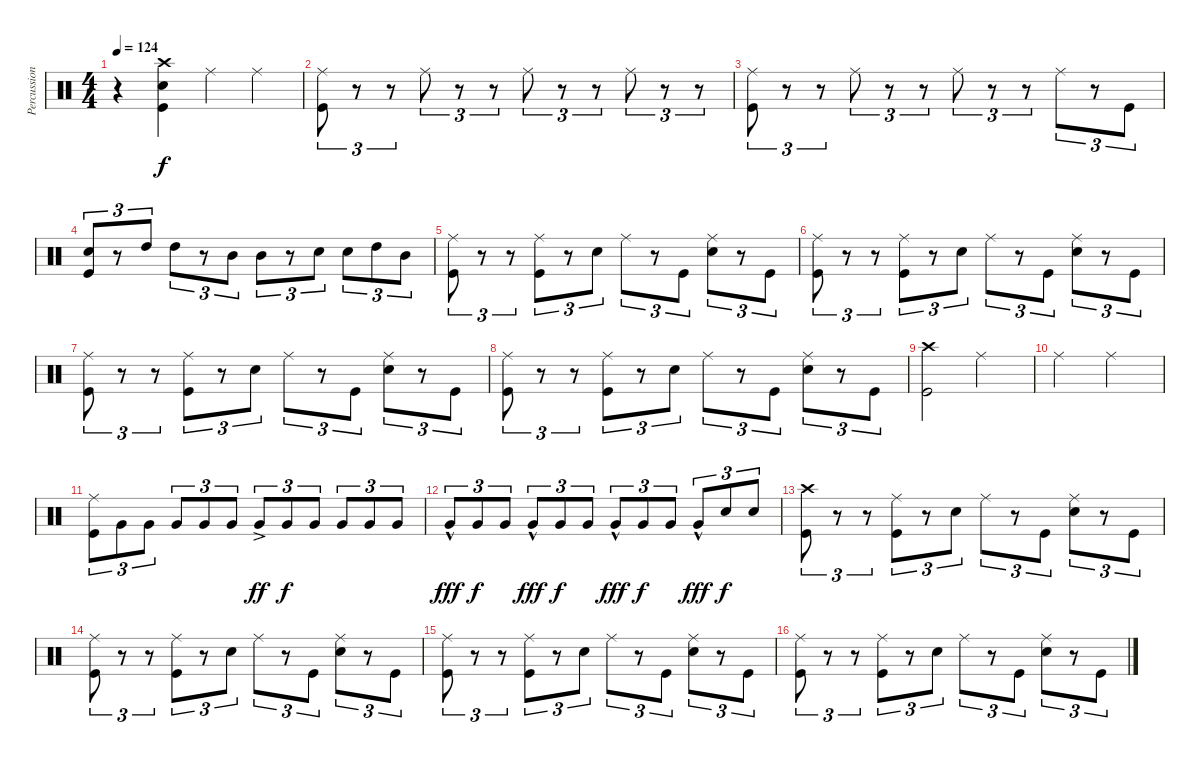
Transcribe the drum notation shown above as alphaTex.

\track ("Percussion" "Percussion") {instrument percussion}
\staff {score}
\articulation defaults
\ts (4 4)
\tempo 124
\clef neutral
\ks c
r.4{dy f} ("Crash high (hit)" "Snare (hit) 2" "Kick (hit)").4 "Ride (middle)".4 "Ride (middle)".4 |
("Ride (middle)" "Kick (hit)").8{tu (3 2)} r.8{tu (3 2)} r.8{tu (3 2)} "Ride (middle)".8{tu (3 2)} r.8{tu (3 2)} r.8{tu (3 2)} "Ride (middle)".8{tu (3 2)} r.8{tu (3 2)} r.8{tu (3 2)} "Ride (middle)".8{tu (3 2)} r.8{tu (3 2)} r.8{tu (3 2)} |
("Ride (middle)" "Kick (hit)").8{tu (3 2)} r.8{tu (3 2)} r.8{tu (3 2)} "Ride (middle)".8{tu (3 2)} r.8{tu (3 2)} r.8{tu (3 2)} "Ride (middle)".8{tu (3 2)} r.8{tu (3 2)} r.8{tu (3 2)} "Ride (middle)".8{tu (3 2)} r.8{tu (3 2)} "Kick (hit)".8{tu (3 2)} |
("Snare (hit) 2" "Kick (hit)").8{tu (3 2)} r.8{tu (3 2)} "High Tom (hit)".8{tu (3 2)} "High Tom (hit)".8{tu (3 2)} r.8{tu (3 2)} "Mid Tom (hit)".8{tu (3 2)} "Mid Tom (hit)".8{tu (3 2)} r.8{tu (3 2)} "Snare (hit) 2".8{tu (3 2)} "Snare (hit) 2".8{tu (3 2)} "High Tom (hit)".8{tu (3 2)} "Mid Tom (hit)".8{tu (3 2)} |
("Ride (middle)" "Kick (hit)").8{tu (3 2)} r.8{tu (3 2)} r.8{tu (3 2)} ("Ride (middle)" "Kick (hit)").8{tu (3 2)} r.8{tu (3 2)} "Snare (hit) 2".8{tu (3 2)} "Ride (middle)".8{tu (3 2)} r.8{tu (3 2)} "Kick (hit)".8{tu (3 2)} ("Ride (middle)" "Snare (hit) 2").8{tu (3 2)} r.8{tu (3 2)} "Kick (hit)".8{tu (3 2)} |
("Ride (middle)" "Kick (hit)").8{tu (3 2)} r.8{tu (3 2)} r.8{tu (3 2)} ("Ride (middle)" "Kick (hit)").8{tu (3 2)} r.8{tu (3 2)} "Snare (hit) 2".8{tu (3 2)} "Ride (middle)".8{tu (3 2)} r.8{tu (3 2)} "Kick (hit)".8{tu (3 2)} ("Ride (middle)" "Snare (hit) 2").8{tu (3 2)} r.8{tu (3 2)} "Kick (hit)".8{tu (3 2)} |
("Ride (middle)" "Kick (hit)").8{tu (3 2)} r.8{tu (3 2)} r.8{tu (3 2)} ("Ride (middle)" "Kick (hit)").8{tu (3 2)} r.8{tu (3 2)} "Snare (hit) 2".8{tu (3 2)} "Ride (middle)".8{tu (3 2)} r.8{tu (3 2)} "Kick (hit)".8{tu (3 2)} ("Ride (middle)" "Snare (hit) 2").8{tu (3 2)} r.8{tu (3 2)} "Kick (hit)".8{tu (3 2)} |
("Ride (middle)" "Kick (hit)").8{tu (3 2)} r.8{tu (3 2)} r.8{tu (3 2)} ("Ride (middle)" "Kick (hit)").8{tu (3 2)} r.8{tu (3 2)} "Snare (hit) 2".8{tu (3 2)} "Ride (middle)".8{tu (3 2)} r.8{tu (3 2)} "Kick (hit)".8{tu (3 2)} ("Ride (middle)" "Snare (hit) 2").8{tu (3 2)} r.8{tu (3 2)} "Kick (hit)".8{tu (3 2)} |
("Crash high (hit)" "Kick (hit)").2 "Ride (middle)".2 |
"Ride (middle)".2 "Ride (middle)".2 |
("Ride (middle)" "Kick (hit)").8{tu (3 2)} "Very Low Tom (hit)".8{tu (3 2)} "Very Low Tom (hit)".8{tu (3 2)} "Very Low Tom (hit)".8{tu (3 2)} "Very Low Tom (hit)".8{tu (3 2)} "Very Low Tom (hit)".8{tu (3 2)} "Very Low Tom (hit)"{ac}.8{tu (3 2) dy ff} "Very Low Tom (hit)".8{tu (3 2) dy f} "Very Low Tom (hit)".8{tu (3 2)} "Very Low Tom (hit)".8{tu (3 2)} "Very Low Tom (hit)".8{tu (3 2)} "Very Low Tom (hit)".8{tu (3 2)} |
"Very Low Tom (hit)"{hac}.8{tu (3 2) dy fff} "Very Low Tom (hit)".8{tu (3 2) dy f} "Very Low Tom (hit)".8{tu (3 2)} "Very Low Tom (hit)"{hac}.8{tu (3 2) dy fff} "Very Low Tom (hit)".8{tu (3 2) dy f} "Very Low Tom (hit)".8{tu (3 2)} "Very Low Tom (hit)"{hac}.8{tu (3 2) dy fff} "Very Low Tom (hit)".8{tu (3 2) dy f} "Very Low Tom (hit)".8{tu (3 2)} "Very Low Tom (hit)"{hac}.8{tu (3 2) dy fff} "Snare (hit) 2".8{tu (3 2) dy f} "Snare (hit) 2".8{tu (3 2)} |
("Crash high (hit)" "Kick (hit)").8{tu (3 2)} r.8{tu (3 2)} r.8{tu (3 2)} ("Ride (middle)" "Kick (hit)").8{tu (3 2)} r.8{tu (3 2)} "Snare (hit) 2".8{tu (3 2)} "Ride (middle)".8{tu (3 2)} r.8{tu (3 2)} "Kick (hit)".8{tu (3 2)} ("Ride (middle)" "Snare (hit) 2").8{tu (3 2)} r.8{tu (3 2)} "Kick (hit)".8{tu (3 2)} |
("Ride (middle)" "Kick (hit)").8{tu (3 2)} r.8{tu (3 2)} r.8{tu (3 2)} ("Ride (middle)" "Kick (hit)").8{tu (3 2)} r.8{tu (3 2)} "Snare (hit) 2".8{tu (3 2)} "Ride (middle)".8{tu (3 2)} r.8{tu (3 2)} "Kick (hit)".8{tu (3 2)} ("Ride (middle)" "Snare (hit) 2").8{tu (3 2)} r.8{tu (3 2)} "Kick (hit)".8{tu (3 2)} |
("Ride (middle)" "Kick (hit)").8{tu (3 2)} r.8{tu (3 2)} r.8{tu (3 2)} ("Ride (middle)" "Kick (hit)").8{tu (3 2)} r.8{tu (3 2)} "Snare (hit) 2".8{tu (3 2)} "Ride (middle)".8{tu (3 2)} r.8{tu (3 2)} "Kick (hit)".8{tu (3 2)} ("Ride (middle)" "Snare (hit) 2").8{tu (3 2)} r.8{tu (3 2)} "Kick (hit)".8{tu (3 2)} |
("Ride (middle)" "Kick (hit)").8{tu (3 2)} r.8{tu (3 2)} r.8{tu (3 2)} ("Ride (middle)" "Kick (hit)").8{tu (3 2)} r.8{tu (3 2)} "Snare (hit) 2".8{tu (3 2)} "Ride (middle)".8{tu (3 2)} r.8{tu (3 2)} "Kick (hit)".8{tu (3 2)} ("Ride (middle)" "Snare (hit) 2").8{tu (3 2)} r.8{tu (3 2)} "Kick (hit)".8{tu (3 2)}
